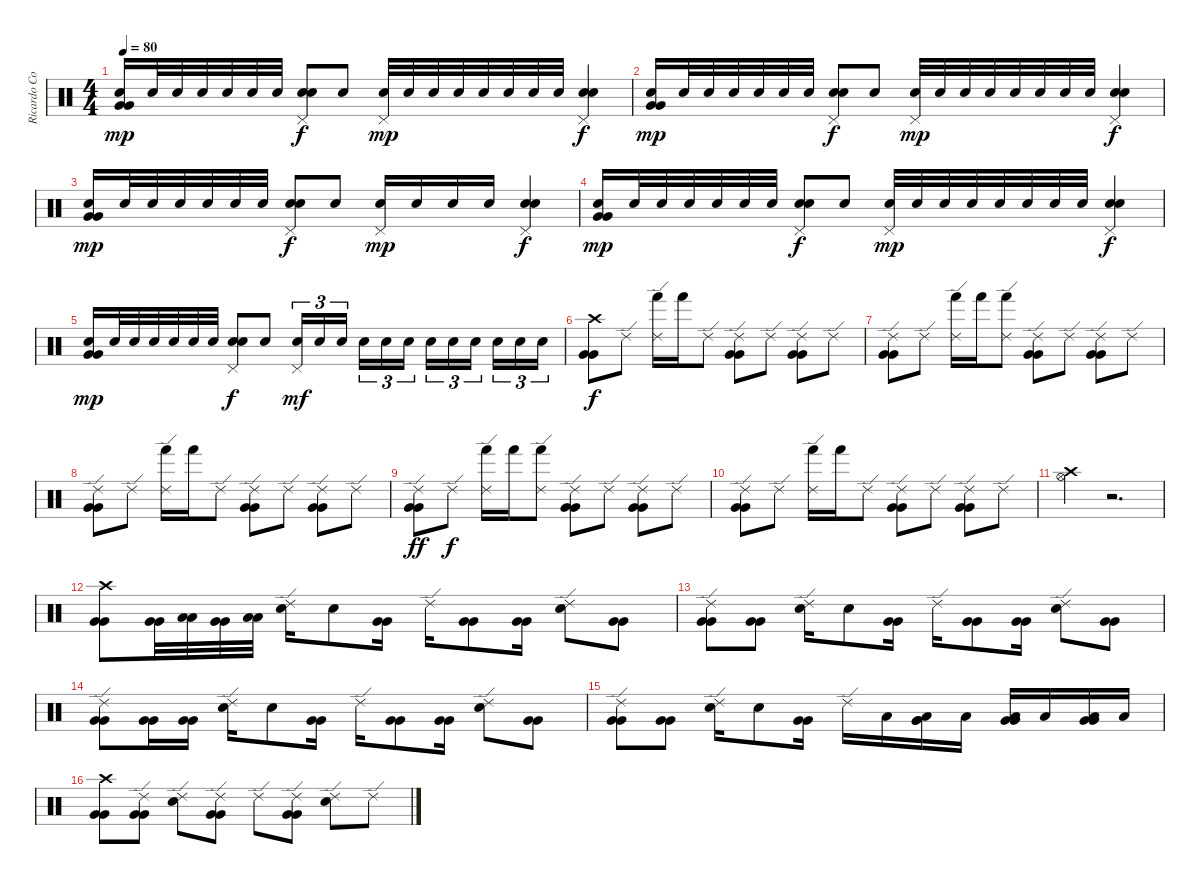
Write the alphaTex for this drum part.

\track ("Ricardo Confessori" "Ricardo Co") {instrument percussion}
\staff {score}
\articulation defaults
\ts (4 4)
\tempo 80
\clef neutral
\ks c
("Very Low Tom (hit)" "Very Low Tom (hit)" "Electric Snare (hit)").16{dy mp} "Electric Snare (hit)".32 "Electric Snare (hit)".32 "Electric Snare (hit)".32 "Electric Snare (hit)".32 "Electric Snare (hit)".32 "Electric Snare (hit)".32 ("Pedal Hi-Hat (hit)" "Electric Snare (hit)" "Electric Snare (hit)").8{bd 120 dy f} "Electric Snare (hit)".8 ("Pedal Hi-Hat (hit)" "Electric Snare (hit)").32{dy mp} "Electric Snare (hit)".32 "Electric Snare (hit)".32 "Electric Snare (hit)".32 "Electric Snare (hit)".32 "Electric Snare (hit)".32 "Electric Snare (hit)".32 "Electric Snare (hit)".32 ("Pedal Hi-Hat (hit)" "Electric Snare (hit)" "Electric Snare (hit)").4{bd 120 dy f} |
("Very Low Tom (hit)" "Very Low Tom (hit)" "Electric Snare (hit)").16{dy mp} "Electric Snare (hit)".32 "Electric Snare (hit)".32 "Electric Snare (hit)".32 "Electric Snare (hit)".32 "Electric Snare (hit)".32 "Electric Snare (hit)".32 ("Pedal Hi-Hat (hit)" "Electric Snare (hit)" "Electric Snare (hit)").8{bd 120 dy f} "Electric Snare (hit)".8 ("Pedal Hi-Hat (hit)" "Electric Snare (hit)").32{dy mp} "Electric Snare (hit)".32 "Electric Snare (hit)".32 "Electric Snare (hit)".32 "Electric Snare (hit)".32 "Electric Snare (hit)".32 "Electric Snare (hit)".32 "Electric Snare (hit)".32 ("Pedal Hi-Hat (hit)" "Electric Snare (hit)" "Electric Snare (hit)").4{bd 120 dy f} |
("Very Low Tom (hit)" "Very Low Tom (hit)" "Electric Snare (hit)").16{dy mp} "Electric Snare (hit)".32 "Electric Snare (hit)".32 "Electric Snare (hit)".32 "Electric Snare (hit)".32 "Electric Snare (hit)".32 "Electric Snare (hit)".32 ("Pedal Hi-Hat (hit)" "Electric Snare (hit)" "Electric Snare (hit)").8{bd 120 dy f} "Electric Snare (hit)".8 ("Pedal Hi-Hat (hit)" "Electric Snare (hit)").16{dy mp} "Electric Snare (hit)".16 "Electric Snare (hit)".16 "Electric Snare (hit)".16 ("Pedal Hi-Hat (hit)" "Electric Snare (hit)" "Electric Snare (hit)").4{bd 120 dy f} |
("Very Low Tom (hit)" "Very Low Tom (hit)" "Electric Snare (hit)").16{dy mp} "Electric Snare (hit)".32 "Electric Snare (hit)".32 "Electric Snare (hit)".32 "Electric Snare (hit)".32 "Electric Snare (hit)".32 "Electric Snare (hit)".32 ("Pedal Hi-Hat (hit)" "Electric Snare (hit)" "Electric Snare (hit)").8{bd 120 dy f} "Electric Snare (hit)".8 ("Pedal Hi-Hat (hit)" "Electric Snare (hit)").32{dy mp} "Electric Snare (hit)".32 "Electric Snare (hit)".32 "Electric Snare (hit)".32 "Electric Snare (hit)".32 "Electric Snare (hit)".32 "Electric Snare (hit)".32 "Electric Snare (hit)".32 ("Pedal Hi-Hat (hit)" "Electric Snare (hit)" "Electric Snare (hit)").4{bd 120 dy f} |
("Very Low Tom (hit)" "Very Low Tom (hit)" "Electric Snare (hit)").16{dy mp} "Electric Snare (hit)".32 "Electric Snare (hit)".32 "Electric Snare (hit)".32 "Electric Snare (hit)".32 "Electric Snare (hit)".32 "Electric Snare (hit)".32 ("Pedal Hi-Hat (hit)" "Electric Snare (hit)" "Electric Snare (hit)").8{bd 120 dy f} "Electric Snare (hit)".8 ("Pedal Hi-Hat (hit)" "Electric Snare (hit)").16{tu (3 2) dy mf} "Electric Snare (hit)".16{tu (3 2)} "Electric Snare (hit)".16{tu (3 2)} "Electric Snare (hit)".16{tu (3 2)} "Electric Snare (hit)".16{tu (3 2)} "Electric Snare (hit)".16{tu (3 2)} "Electric Snare (hit)".16{tu (3 2)} "Electric Snare (hit)".16{tu (3 2)} "Electric Snare (hit)".16{tu (3 2)} "Electric Snare (hit)".16{tu (3 2)} "Electric Snare (hit)".16{tu (3 2)} "Electric Snare (hit)".16{tu (3 2)} |
("Crash high (hit)" "Very Low Tom (hit)" "Very Low Tom (hit)").8{dy f} "Ride (edge) 2".8 ("Ride (edge) 2" "Hand (hit)").16 "Hand (hit)".16 "Ride (edge) 2".8 ("Ride (edge) 2" "Very Low Tom (hit)" "Very Low Tom (hit)").8 "Ride (edge) 2".8 ("Ride (edge) 2" "Very Low Tom (hit)" "Very Low Tom (hit)").8 "Ride (edge) 2".8 |
("Ride (edge) 2" "Very Low Tom (hit)" "Very Low Tom (hit)").8 "Ride (edge) 2".8 ("Ride (edge) 2" "Hand (hit)").16 "Hand (hit)".16 ("Ride (edge) 2" "Hand (hit)").8 ("Ride (edge) 2" "Very Low Tom (hit)" "Very Low Tom (hit)").8 "Ride (edge) 2".8 ("Ride (edge) 2" "Very Low Tom (hit)" "Very Low Tom (hit)").8 "Ride (edge) 2".8 |
("Ride (edge) 2" "Very Low Tom (hit)" "Very Low Tom (hit)").8 "Ride (edge) 2".8 ("Ride (edge) 2" "Hand (hit)").16 "Hand (hit)".16 "Ride (edge) 2".8 ("Ride (edge) 2" "Very Low Tom (hit)" "Very Low Tom (hit)").8 "Ride (edge) 2".8 ("Ride (edge) 2" "Very Low Tom (hit)" "Very Low Tom (hit)").8 "Ride (edge) 2".8 |
("Ride (edge) 2" "Very Low Tom (hit)" "Very Low Tom (hit)").8{dy ff} "Ride (edge) 2".8{dy f} ("Ride (edge) 2" "Hand (hit)").16 "Hand (hit)".16 ("Ride (edge) 2" "Hand (hit)").8 ("Ride (edge) 2" "Very Low Tom (hit)" "Very Low Tom (hit)").8 "Ride (edge) 2".8 ("Ride (edge) 2" "Very Low Tom (hit)" "Very Low Tom (hit)").8 "Ride (edge) 2".8 |
("Ride (edge) 2" "Very Low Tom (hit)" "Very Low Tom (hit)").8 "Ride (edge) 2".8 ("Ride (edge) 2" "Hand (hit)").16 "Hand (hit)".16 "Ride (edge) 2".8 ("Ride (edge) 2" "Very Low Tom (hit)" "Very Low Tom (hit)").8 "Ride (edge) 2".8 ("Ride (edge) 2" "Very Low Tom (hit)" "Very Low Tom (hit)").8 "Ride (edge) 2".8 |
("Crash high (hit)" "Hi-Hat (open)").4 r.2{d} |
("Crash high (hit)" "Very Low Tom (hit)" "Very Low Tom (hit)").8 ("Very Low Tom (hit)" "Very Low Tom (hit)").32 ("Low Floor Tom (hit)" "Low Floor Tom (hit)").32 ("Very Low Tom (hit)" "Very Low Tom (hit)").32 ("Low Floor Tom (hit)" "Low Floor Tom (hit)").32 ("Ride (edge) 2" "Electric Snare (hit)").16 "Electric Snare (hit)".8 ("Very Low Tom (hit)" "Very Low Tom (hit)").16 "Ride (edge) 2".16 ("Very Low Tom (hit)" "Very Low Tom (hit)").8 ("Very Low Tom (hit)" "Very Low Tom (hit)").16 ("Ride (edge) 2" "Electric Snare (hit)").8 ("Very Low Tom (hit)" "Very Low Tom (hit)").8 |
("Ride (edge) 2" "Very Low Tom (hit)" "Very Low Tom (hit)").8 ("Very Low Tom (hit)" "Very Low Tom (hit)").8 ("Ride (edge) 2" "Electric Snare (hit)").16 "Electric Snare (hit)".8 ("Very Low Tom (hit)" "Very Low Tom (hit)").16 "Ride (edge) 2".16 ("Very Low Tom (hit)" "Very Low Tom (hit)").8 ("Very Low Tom (hit)" "Very Low Tom (hit)").16 ("Ride (edge) 2" "Electric Snare (hit)").8 ("Very Low Tom (hit)" "Very Low Tom (hit)").8 |
("Ride (edge) 2" "Very Low Tom (hit)" "Very Low Tom (hit)").8 ("Very Low Tom (hit)" "Very Low Tom (hit)").16 ("Very Low Tom (hit)" "Very Low Tom (hit)").16 ("Ride (edge) 2" "Electric Snare (hit)").16 "Electric Snare (hit)".8 ("Very Low Tom (hit)" "Very Low Tom (hit)").16 "Ride (edge) 2".16 ("Very Low Tom (hit)" "Very Low Tom (hit)").8 ("Very Low Tom (hit)" "Very Low Tom (hit)").16 ("Ride (edge) 2" "Electric Snare (hit)").8 ("Very Low Tom (hit)" "Very Low Tom (hit)").8 |
("Ride (edge) 2" "Very Low Tom (hit)" "Very Low Tom (hit)").8 ("Very Low Tom (hit)" "Very Low Tom (hit)").8 ("Ride (edge) 2" "Electric Snare (hit)").16 "Electric Snare (hit)".8 ("Very Low Tom (hit)" "Very Low Tom (hit)").16 "Ride (edge) 2".16 "Low Tom (hit)".16 ("Low Tom (hit)" "Very Low Tom (hit)" "Very Low Tom (hit)").16 "Low Tom (hit)".16 ("Low Tom (hit)" "Very Low Tom (hit)" "Very Low Tom (hit)").16 "Low Tom (hit)".16 ("Low Tom (hit)" "Very Low Tom (hit)" "Very Low Tom (hit)").16 "Low Tom (hit)".16 |
("Crash high (hit)" "Very Low Tom (hit)" "Very Low Tom (hit)").8 ("Ride (edge) 2" "Very Low Tom (hit)" "Very Low Tom (hit)").8 ("Ride (edge) 2" "Electric Snare (hit)").8 ("Ride (edge) 2" "Very Low Tom (hit)" "Very Low Tom (hit)").8 "Ride (edge) 2".8 ("Ride (edge) 2" "Very Low Tom (hit)" "Very Low Tom (hit)").8 ("Ride (edge) 2" "Electric Snare (hit)").8 "Ride (edge) 2".8
